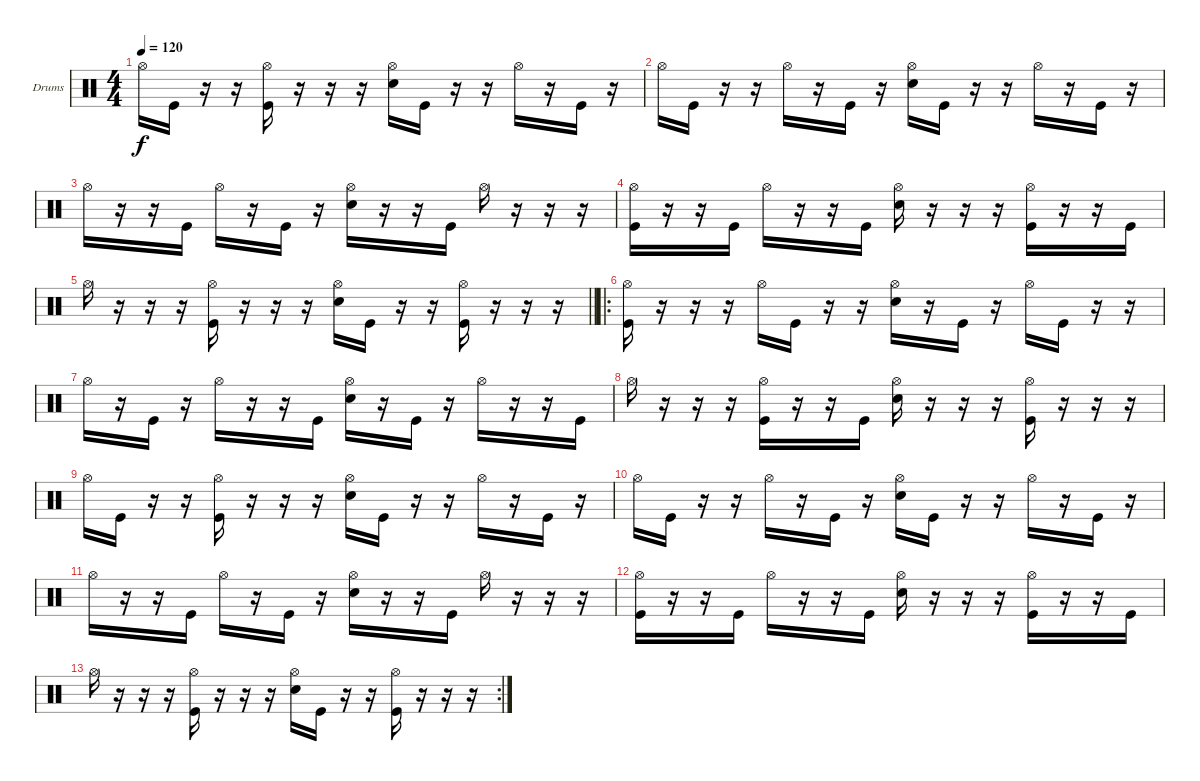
\bracketExtendMode groupsimilarinstruments
\firstSystemTrackNameOrientation horizontal
\otherSystemsTrackNameOrientation horizontal
\track ("Drumkit" "Drums") {instrument percussion}
\staff {score}
\articulation defaults
\ts (4 4)
\tempo 120
\clef neutral
\ks c "Hi-Hat (open)".16{dy f} "Kick (hit)".16
r.16 r.16 ("Hi-Hat (open)" "Kick (hit)").16 r.16 r.16 r.16 ("Hi-Hat (open)" "Snare (hit) 2").16 "Kick (hit)".16 r.16 r.16 "Hi-Hat (open)".16 r.16 "Kick (hit)".16 r.16 |
"Hi-Hat (open)".16 "Kick (hit)".16 r.16 r.16 "Hi-Hat (open)".16 r.16 "Kick (hit)".16 r.16 ("Hi-Hat (open)" "Snare (hit) 2").16 "Kick (hit)".16 r.16 r.16 "Hi-Hat (open)".16 r.16 "Kick (hit)".16 r.16 |
"Hi-Hat (open)".16 r.16 r.16 "Kick (hit)".16 "Hi-Hat (open)".16 r.16 "Kick (hit)".16 r.16 ("Hi-Hat (open)" "Snare (hit) 2").16 r.16 r.16 "Kick (hit)".16 "Hi-Hat (open)".16 r.16 r.16 r.16 |
("Hi-Hat (open)" "Kick (hit)").16 r.16 r.16 "Kick (hit)".16 "Hi-Hat (open)".16 r.16 r.16 "Kick (hit)".16 ("Hi-Hat (open)" "Snare (hit) 2").16 r.16 r.16 r.16 ("Hi-Hat (open)" "Kick (hit)").16 r.16 r.16 "Kick (hit)".16 |
\barLineRight lightlight "Hi-Hat (open)".16
r.16 r.16 r.16 ("Hi-Hat (open)" "Kick (hit)").16 r.16 r.16 r.16 ("Hi-Hat (open)" "Snare (hit) 2").16 "Kick (hit)".16 r.16 r.16 ("Hi-Hat (open)" "Kick (hit)").16 r.16 r.16 r.16 |
\ro
("Hi-Hat (open)" "Kick (hit)").16 r.16 r.16 r.16 "Hi-Hat (open)".16 "Kick (hit)".16 r.16 r.16 ("Hi-Hat (open)" "Snare (hit) 2").16 r.16 "Kick (hit)".16 r.16 "Hi-Hat (open)".16 "Kick (hit)".16 r.16 r.16 |
"Hi-Hat (open)".16 r.16 "Kick (hit)".16 r.16 "Hi-Hat (open)".16 r.16 r.16 "Kick (hit)".16 ("Hi-Hat (open)" "Snare (hit) 2").16 r.16 "Kick (hit)".16 r.16 "Hi-Hat (open)".16 r.16 r.16 "Kick (hit)".16 |
"Hi-Hat (open)".16 r.16 r.16 r.16 ("Hi-Hat (open)" "Kick (hit)").16 r.16 r.16 "Kick (hit)".16 ("Hi-Hat (open)" "Snare (hit) 2").16 r.16 r.16 r.16 ("Hi-Hat (open)" "Kick (hit)").16 r.16 r.16 r.16 |
"Hi-Hat (open)".16 "Kick (hit)".16 r.16 r.16 ("Hi-Hat (open)" "Kick (hit)").16 r.16 r.16 r.16 ("Hi-Hat (open)" "Snare (hit) 2").16 "Kick (hit)".16 r.16 r.16 "Hi-Hat (open)".16 r.16 "Kick (hit)".16 r.16 |
"Hi-Hat (open)".16 "Kick (hit)".16 r.16 r.16 "Hi-Hat (open)".16 r.16 "Kick (hit)".16 r.16 ("Hi-Hat (open)" "Snare (hit) 2").16 "Kick (hit)".16 r.16 r.16 "Hi-Hat (open)".16 r.16 "Kick (hit)".16 r.16 |
"Hi-Hat (open)".16 r.16 r.16 "Kick (hit)".16 "Hi-Hat (open)".16 r.16 "Kick (hit)".16 r.16 ("Hi-Hat (open)" "Snare (hit) 2").16 r.16 r.16 "Kick (hit)".16 "Hi-Hat (open)".16 r.16 r.16 r.16 |
("Hi-Hat (open)" "Kick (hit)").16 r.16 r.16 "Kick (hit)".16 "Hi-Hat (open)".16 r.16 r.16 "Kick (hit)".16 ("Hi-Hat (open)" "Snare (hit) 2").16 r.16 r.16 r.16 ("Hi-Hat (open)" "Kick (hit)").16 r.16 r.16 "Kick (hit)".16 |
\rc 2 "Hi-Hat (open)".16
r.16 r.16 r.16 ("Hi-Hat (open)" "Kick (hit)").16 r.16 r.16 r.16 ("Hi-Hat (open)" "Snare (hit) 2").16 "Kick (hit)".16 r.16 r.16 ("Hi-Hat (open)" "Kick (hit)").16 r.16 r.16 r.16
